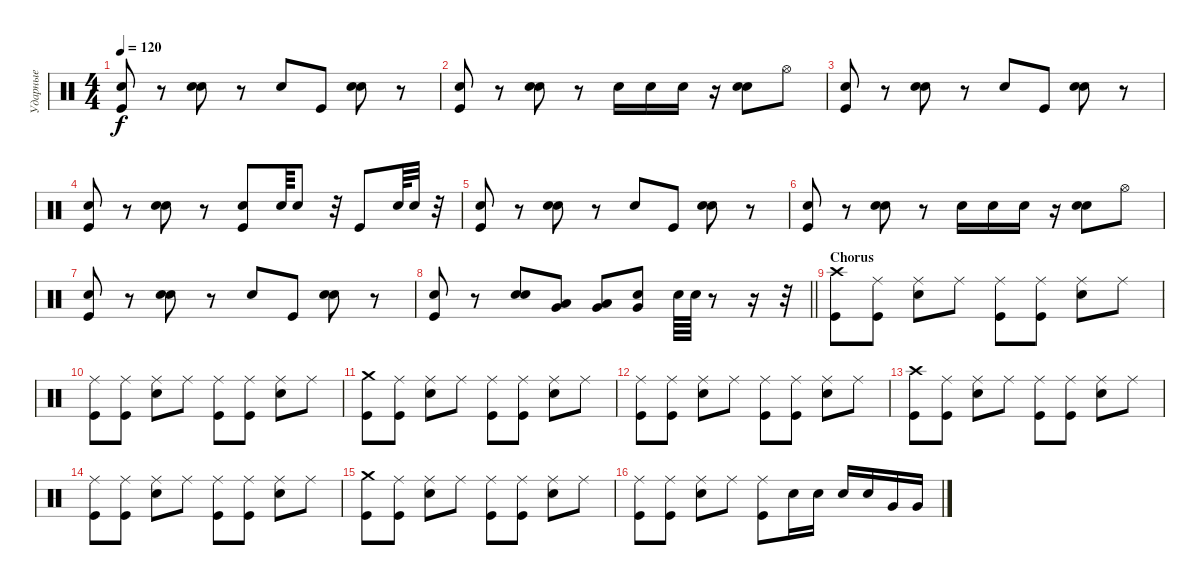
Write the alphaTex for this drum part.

\track ("Ударные" "Ударные") {instrument percussion}
\staff {score}
\articulation defaults
\ts (4 4)
\tempo 120
\clef neutral
\ks c
("Snare (hit) 2" "Kick (hit)").8{dy f} r.8 ("Electric Snare (hit)" "Snare (hit) 2").8 r.8 "Snare (hit) 2".8 "Kick (hit)".8 ("Electric Snare (hit)" "Snare (hit) 2").8 r.8 |
("Snare (hit) 2" "Kick (hit)").8 r.8 ("Electric Snare (hit)" "Snare (hit) 2").8 r.8 "Snare (hit) 2".16 "Snare (hit) 2".16 "Snare (hit) 2".16 r.16 ("Electric Snare (hit)" "Snare (hit) 2").8 "Hi-Hat (open)".8 |
("Snare (hit) 2" "Kick (hit)").8 r.8 ("Electric Snare (hit)" "Snare (hit) 2").8 r.8 "Snare (hit) 2".8 "Kick (hit)".8 ("Electric Snare (hit)" "Snare (hit) 2").8 r.8 |
("Snare (hit) 2" "Kick (hit)").8 r.8 ("Electric Snare (hit)" "Snare (hit) 2").8 r.8 ("Snare (hit) 2" "Kick (hit)").8 "Electric Snare (hit)".64 "Electric Snare (hit)".8 r.32 "Kick (hit)".8 "Electric Snare (hit)".64 "Electric Snare (hit)".32 r.32 |
("Snare (hit) 2" "Kick (hit)").8 r.8 ("Electric Snare (hit)" "Snare (hit) 2").8 r.8 "Snare (hit) 2".8 "Kick (hit)".8 ("Electric Snare (hit)" "Snare (hit) 2").8 r.8 |
("Snare (hit) 2" "Kick (hit)").8 r.8 ("Electric Snare (hit)" "Snare (hit) 2").8 r.8 "Snare (hit) 2".16 "Snare (hit) 2".16 "Snare (hit) 2".16 r.16 ("Electric Snare (hit)" "Snare (hit) 2").8 "Hi-Hat (open)".8 |
("Snare (hit) 2" "Kick (hit)").8 r.8 ("Electric Snare (hit)" "Snare (hit) 2").8 r.8 "Snare (hit) 2".8 "Kick (hit)".8 ("Electric Snare (hit)" "Snare (hit) 2").8 r.8 |
\barLineRight lightlight
("Snare (hit) 2" "Kick (hit)").8 r.8 ("Snare (hit) 2" "Electric Snare (hit)").8 ("Low Floor Tom (hit)" "Very Low Tom (hit)").8 ("Low Floor Tom (hit)" "Very Low Tom (hit)").8 ("Snare (hit) 2" "Very Low Tom (hit)").8 "Electric Snare (hit)".64 "Electric Snare (hit)".64 r.8 r.16 r.32 |
\section ("" "Chorus")
("Crash high (hit)" "Kick (hit)").8 ("Ride (middle)" "Kick (hit)").8 ("Ride (middle)" "Snare (hit) 2").8 "Ride (middle)".8 ("Ride (middle)" "Kick (hit)").8 ("Ride (middle)" "Kick (hit)").8 ("Ride (middle)" "Snare (hit) 2").8 "Ride (middle)".8 |
("Ride (middle)" "Kick (hit)").8 ("Ride (middle)" "Kick (hit)").8 ("Ride (middle)" "Snare (hit) 2").8 "Ride (middle)".8 ("Ride (middle)" "Kick (hit)").8 ("Ride (middle)" "Kick (hit)").8 ("Ride (middle)" "Snare (hit) 2").8 "Ride (middle)".8 |
("Crash medium (hit)" "Kick (hit)").8 ("Ride (middle)" "Kick (hit)").8 ("Ride (middle)" "Snare (hit) 2").8 "Ride (middle)".8 ("Ride (middle)" "Kick (hit)").8 ("Ride (middle)" "Kick (hit)").8 ("Ride (middle)" "Snare (hit) 2").8 "Ride (middle)".8 |
("Ride (middle)" "Kick (hit)").8 ("Ride (middle)" "Kick (hit)").8 ("Ride (middle)" "Snare (hit) 2").8 "Ride (middle)".8 ("Ride (middle)" "Kick (hit)").8 ("Ride (middle)" "Kick (hit)").8 ("Ride (middle)" "Snare (hit) 2").8 "Ride (middle)".8 |
("Crash high (hit)" "Kick (hit)").8 ("Ride (middle)" "Kick (hit)").8 ("Ride (middle)" "Snare (hit) 2").8 "Ride (middle)".8 ("Ride (middle)" "Kick (hit)").8 ("Ride (middle)" "Kick (hit)").8 ("Ride (middle)" "Snare (hit) 2").8 "Ride (middle)".8 |
("Ride (middle)" "Kick (hit)").8 ("Ride (middle)" "Kick (hit)").8 ("Ride (middle)" "Snare (hit) 2").8 "Ride (middle)".8 ("Ride (middle)" "Kick (hit)").8 ("Ride (middle)" "Kick (hit)").8 ("Ride (middle)" "Snare (hit) 2").8 "Ride (middle)".8 |
("Crash medium (hit)" "Kick (hit)").8 ("Ride (middle)" "Kick (hit)").8 ("Ride (middle)" "Snare (hit) 2").8 "Ride (middle)".8 ("Ride (middle)" "Kick (hit)").8 ("Ride (middle)" "Kick (hit)").8 ("Ride (middle)" "Snare (hit) 2").8 "Ride (middle)".8 |
("Ride (middle)" "Kick (hit)").8 ("Ride (middle)" "Kick (hit)").8 ("Ride (middle)" "Snare (hit) 2").8 "Ride (middle)".8 ("Ride (middle)" "Kick (hit)").8 "Snare (hit) 2".16 "Snare (hit) 2".16 "Snare (hit) 2".16 "Snare (hit) 2".16 "Very Low Tom (hit)".16 "Very Low Tom (hit)".16
